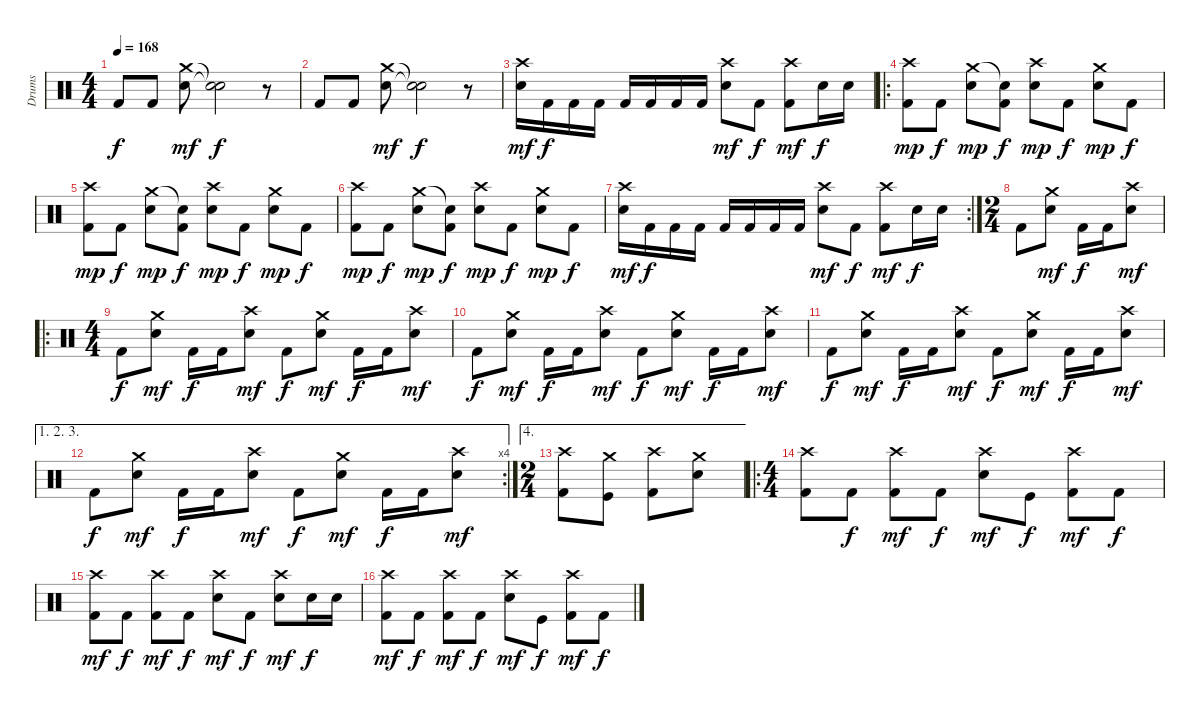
\track ("Drums" "Drums") {instrument percussion}
\staff {score}
\articulation defaults
\ts (4 4)
\tempo 168
\clef neutral
\ks c "Kick (hit) 2".8{dy f} "Kick (hit) 2".8
("Crash medium (hit)" "Snare (hit) 2").8{dy mf} ("Snare (hit)"{t} "Snare (hit)"{t}).2{dy f} r.8 |
"Kick (hit) 2".8 "Kick (hit) 2".8 ("Crash medium (hit)" "Snare (hit) 2").8{dy mf} ("Snare (hit)"{t} "Snare (hit)"{t}).2{dy f} r.8 |
("Crash high (hit)" "Snare (hit) 2").16{dy mf} "Kick (hit) 2".16{dy f} "Kick (hit) 2".16 "Kick (hit) 2".16 "Kick (hit) 2".16 "Kick (hit) 2".16 "Kick (hit) 2".16 "Kick (hit) 2".16 ("Crash high (hit)" "Snare (hit) 2").8{dy mf} "Kick (hit) 2".8{dy f} ("Crash high (hit)" "Kick (hit) 2").8{dy mf} "Snare (hit) 2".16{dy f} "Snare (hit) 2".16 |
\ro
("Crash high (hit)" "Kick (hit) 2").8{dy mp} "Kick (hit) 2".8{dy f} ("Crash medium (hit)" "Snare (hit) 2").8{dy mp} ("Snare (hit)"{t} "Kick (hit) 2").8{dy f} ("Crash high (hit)" "Snare (hit) 2").8{dy mp} "Kick (hit) 2".8{dy f} ("Crash medium (hit)" "Snare (hit) 2").8{dy mp} "Kick (hit) 2".8{dy f} |
("Crash high (hit)" "Kick (hit) 2").8{dy mp} "Kick (hit) 2".8{dy f} ("Crash medium (hit)" "Snare (hit) 2").8{dy mp} ("Snare (hit)"{t} "Kick (hit) 2").8{dy f} ("Crash high (hit)" "Snare (hit) 2").8{dy mp} "Kick (hit) 2".8{dy f} ("Crash medium (hit)" "Snare (hit) 2").8{dy mp} "Kick (hit) 2".8{dy f} |
("Crash high (hit)" "Kick (hit) 2").8{dy mp} "Kick (hit) 2".8{dy f} ("Crash medium (hit)" "Snare (hit) 2").8{dy mp} ("Snare (hit)"{t} "Kick (hit) 2").8{dy f} ("Crash high (hit)" "Snare (hit) 2").8{dy mp} "Kick (hit) 2".8{dy f} ("Crash medium (hit)" "Snare (hit) 2").8{dy mp} "Kick (hit) 2".8{dy f} |
\rc 2
("Crash high (hit)" "Snare (hit) 2").16{dy mf} "Kick (hit) 2".16{dy f} "Kick (hit) 2".16 "Kick (hit) 2".16 "Kick (hit) 2".16 "Kick (hit) 2".16 "Kick (hit) 2".16 "Kick (hit) 2".16 ("Crash high (hit)" "Snare (hit) 2").8{dy mf} "Kick (hit) 2".8{dy f} ("Crash high (hit)" "Kick (hit) 2").8{dy mf} "Snare (hit) 2".16{dy f} "Snare (hit) 2".16 |
\ts (2 4)
"Kick (hit) 2".8 ("Crash medium (hit)" "Snare (hit) 2").8{dy mf} "Kick (hit) 2".16{dy f} "Kick (hit) 2".16 ("Crash high (hit)" "Snare (hit) 2").8{dy mf} |
\ro
\ts (4 4)
"Kick (hit) 2".8{dy f} ("Crash medium (hit)" "Snare (hit) 2").8{dy mf} "Kick (hit) 2".16{dy f} "Kick (hit) 2".16 ("Crash high (hit)" "Snare (hit) 2").8{dy mf} "Kick (hit) 2".8{dy f} ("Crash medium (hit)" "Snare (hit) 2").8{dy mf} "Kick (hit) 2".16{dy f} "Kick (hit) 2".16 ("Crash high (hit)" "Snare (hit) 2").8{dy mf} |
"Kick (hit) 2".8{dy f} ("Crash medium (hit)" "Snare (hit) 2").8{dy mf} "Kick (hit) 2".16{dy f} "Kick (hit) 2".16 ("Crash high (hit)" "Snare (hit) 2").8{dy mf} "Kick (hit) 2".8{dy f} ("Crash medium (hit)" "Snare (hit) 2").8{dy mf} "Kick (hit) 2".16{dy f} "Kick (hit) 2".16 ("Crash high (hit)" "Snare (hit) 2").8{dy mf} |
"Kick (hit) 2".8{dy f} ("Crash medium (hit)" "Snare (hit) 2").8{dy mf} "Kick (hit) 2".16{dy f} "Kick (hit) 2".16 ("Crash high (hit)" "Snare (hit) 2").8{dy mf} "Kick (hit) 2".8{dy f} ("Crash medium (hit)" "Snare (hit) 2").8{dy mf} "Kick (hit) 2".16{dy f} "Kick (hit) 2".16 ("Crash high (hit)" "Snare (hit) 2").8{dy mf} |
\ae (1 2 3)
\rc 4 "Kick (hit) 2".8{dy f}
("Crash medium (hit)" "Snare (hit) 2").8{dy mf} "Kick (hit) 2".16{dy f} "Kick (hit) 2".16 ("Crash high (hit)" "Snare (hit) 2").8{dy mf} "Kick (hit) 2".8{dy f} ("Crash medium (hit)" "Snare (hit) 2").8{dy mf} "Kick (hit) 2".16{dy f} "Kick (hit) 2".16 ("Crash high (hit)" "Snare (hit) 2").8{dy mf} |
\ae 4
\ts (2 4)
("Crash high (hit)" "Kick (hit) 2").8 ("Crash medium (hit)" "Kick (hit)").8 ("Crash high (hit)" "Kick (hit) 2").8 ("Crash medium (hit)" "Snare (hit) 2").8 |
\ro
\ts (4 4)
("Crash high (hit)" "Kick (hit) 2").8 "Kick (hit) 2".8{dy f} ("Crash high (hit)" "Kick (hit) 2").8{dy mf} "Kick (hit) 2".8{dy f} ("Crash high (hit)" "Snare (hit) 2").8{dy mf} "Kick (hit)".8{dy f} ("Crash high (hit)" "Kick (hit) 2").8{dy mf} "Kick (hit) 2".8{dy f} |
("Crash high (hit)" "Kick (hit) 2").8{dy mf} "Kick (hit) 2".8{dy f} ("Crash high (hit)" "Kick (hit) 2").8{dy mf} "Kick (hit) 2".8{dy f} ("Crash high (hit)" "Snare (hit) 2").8{dy mf} "Kick (hit) 2".8{dy f} ("Crash high (hit)" "Snare (hit) 2").8{dy mf} "Snare (hit) 2".16{dy f} "Snare (hit) 2".16 |
("Crash high (hit)" "Kick (hit) 2").8{dy mf} "Kick (hit) 2".8{dy f} ("Crash high (hit)" "Kick (hit) 2").8{dy mf} "Kick (hit) 2".8{dy f} ("Crash high (hit)" "Snare (hit) 2").8{dy mf} "Kick (hit)".8{dy f} ("Crash high (hit)" "Kick (hit) 2").8{dy mf} "Kick (hit) 2".8{dy f}
